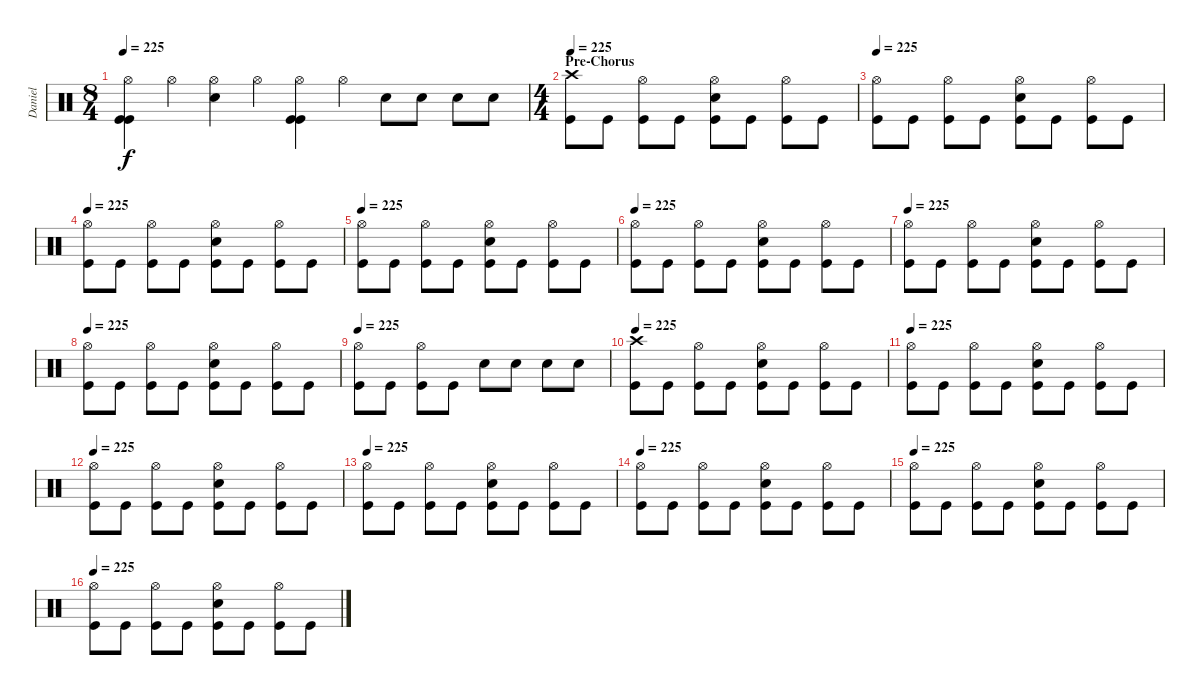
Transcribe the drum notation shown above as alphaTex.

\track ("Daniel" "Daniel") {instrument percussion}
\staff {score}
\articulation defaults
\ts (8 4)
\tempo 225
\clef neutral
\ks c
("Hi-Hat (open)" "Kick (hit)" "Kick (hit)").4{dy f} "Hi-Hat (open)".4 ("Hi-Hat (open)" "Snare (hit) 2").4 "Hi-Hat (open)".4 ("Hi-Hat (open)" "Kick (hit)" "Kick (hit)").4 "Hi-Hat (open)".4 "Snare (hit) 2".8 "Snare (hit) 2".8 "Snare (hit) 2".8 "Snare (hit) 2".8 |
\ts (4 4)
\section ("" "Pre-Chorus")
\tempo 225
("Crash high (hit)" "Kick (hit)").8 "Kick (hit)".8 ("Hi-Hat (open)" "Kick (hit)").8 "Kick (hit)".8 ("Hi-Hat (open)" "Snare (hit) 2" "Kick (hit)").8 "Kick (hit)".8 ("Hi-Hat (open)" "Kick (hit)").8 "Kick (hit)".8 |
\tempo 225
("Hi-Hat (open)" "Kick (hit)").8 "Kick (hit)".8 ("Hi-Hat (open)" "Kick (hit)").8 "Kick (hit)".8 ("Hi-Hat (open)" "Snare (hit) 2" "Kick (hit)").8 "Kick (hit)".8 ("Hi-Hat (open)" "Kick (hit)").8 "Kick (hit)".8 |
\tempo 225
("Hi-Hat (open)" "Kick (hit)").8 "Kick (hit)".8 ("Hi-Hat (open)" "Kick (hit)").8 "Kick (hit)".8 ("Hi-Hat (open)" "Snare (hit) 2" "Kick (hit)").8 "Kick (hit)".8 ("Hi-Hat (open)" "Kick (hit)").8 "Kick (hit)".8 |
\tempo 225
("Hi-Hat (open)" "Kick (hit)").8 "Kick (hit)".8 ("Hi-Hat (open)" "Kick (hit)").8 "Kick (hit)".8 ("Hi-Hat (open)" "Snare (hit) 2" "Kick (hit)").8 "Kick (hit)".8 ("Hi-Hat (open)" "Kick (hit)").8 "Kick (hit)".8 |
\tempo 225
("Hi-Hat (open)" "Kick (hit)").8 "Kick (hit)".8 ("Hi-Hat (open)" "Kick (hit)").8 "Kick (hit)".8 ("Hi-Hat (open)" "Snare (hit) 2" "Kick (hit)").8 "Kick (hit)".8 ("Hi-Hat (open)" "Kick (hit)").8 "Kick (hit)".8 |
\tempo 225
("Hi-Hat (open)" "Kick (hit)").8 "Kick (hit)".8 ("Hi-Hat (open)" "Kick (hit)").8 "Kick (hit)".8 ("Hi-Hat (open)" "Snare (hit) 2" "Kick (hit)").8 "Kick (hit)".8 ("Hi-Hat (open)" "Kick (hit)").8 "Kick (hit)".8 |
\tempo 225
("Hi-Hat (open)" "Kick (hit)").8 "Kick (hit)".8 ("Hi-Hat (open)" "Kick (hit)").8 "Kick (hit)".8 ("Hi-Hat (open)" "Snare (hit) 2" "Kick (hit)").8 "Kick (hit)".8 ("Hi-Hat (open)" "Kick (hit)").8 "Kick (hit)".8 |
\tempo 225
("Hi-Hat (open)" "Kick (hit)").8 "Kick (hit)".8 ("Hi-Hat (open)" "Kick (hit)").8 "Kick (hit)".8 "Snare (hit) 2".8 "Snare (hit) 2".8 "Snare (hit) 2".8 "Snare (hit) 2".8 |
\tempo 225
("Crash high (hit)" "Kick (hit)").8 "Kick (hit)".8 ("Hi-Hat (open)" "Kick (hit)").8 "Kick (hit)".8 ("Hi-Hat (open)" "Snare (hit) 2" "Kick (hit)").8 "Kick (hit)".8 ("Hi-Hat (open)" "Kick (hit)").8 "Kick (hit)".8 |
\tempo 225
("Hi-Hat (open)" "Kick (hit)").8 "Kick (hit)".8 ("Hi-Hat (open)" "Kick (hit)").8 "Kick (hit)".8 ("Hi-Hat (open)" "Snare (hit) 2" "Kick (hit)").8 "Kick (hit)".8 ("Hi-Hat (open)" "Kick (hit)").8 "Kick (hit)".8 |
\tempo 225
("Hi-Hat (open)" "Kick (hit)").8 "Kick (hit)".8 ("Hi-Hat (open)" "Kick (hit)").8 "Kick (hit)".8 ("Hi-Hat (open)" "Snare (hit) 2" "Kick (hit)").8 "Kick (hit)".8 ("Hi-Hat (open)" "Kick (hit)").8 "Kick (hit)".8 |
\tempo 225
("Hi-Hat (open)" "Kick (hit)").8 "Kick (hit)".8 ("Hi-Hat (open)" "Kick (hit)").8 "Kick (hit)".8 ("Hi-Hat (open)" "Snare (hit) 2" "Kick (hit)").8 "Kick (hit)".8 ("Hi-Hat (open)" "Kick (hit)").8 "Kick (hit)".8 |
\tempo 225
("Hi-Hat (open)" "Kick (hit)").8 "Kick (hit)".8 ("Hi-Hat (open)" "Kick (hit)").8 "Kick (hit)".8 ("Hi-Hat (open)" "Snare (hit) 2" "Kick (hit)").8 "Kick (hit)".8 ("Hi-Hat (open)" "Kick (hit)").8 "Kick (hit)".8 |
\tempo 225
("Hi-Hat (open)" "Kick (hit)").8 "Kick (hit)".8 ("Hi-Hat (open)" "Kick (hit)").8 "Kick (hit)".8 ("Hi-Hat (open)" "Snare (hit) 2" "Kick (hit)").8 "Kick (hit)".8 ("Hi-Hat (open)" "Kick (hit)").8 "Kick (hit)".8 |
\tempo 225
("Hi-Hat (open)" "Kick (hit)").8 "Kick (hit)".8 ("Hi-Hat (open)" "Kick (hit)").8 "Kick (hit)".8 ("Hi-Hat (open)" "Snare (hit) 2" "Kick (hit)").8 "Kick (hit)".8 ("Hi-Hat (open)" "Kick (hit)").8 "Kick (hit)".8
